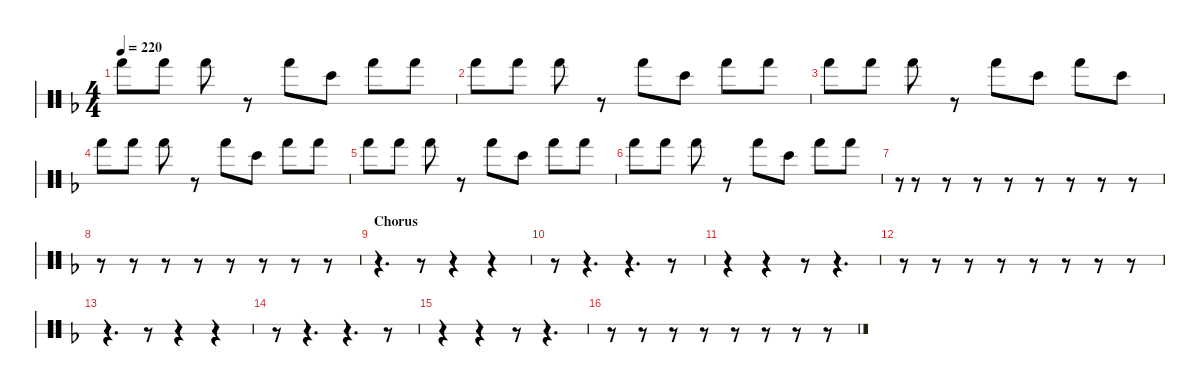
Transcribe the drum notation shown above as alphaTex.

\hideDynamics
\bracketExtendMode nobrackets
\singleTrackTrackNamePolicy hidden
\multiTrackTrackNamePolicy hidden
\firstSystemTrackNameMode fullname
\firstSystemTrackNameOrientation horizontal
\otherSystemsTrackNameOrientation horizontal
\track ("Bongos" "bngKit") {instrument percussion}
\staff {score 2}
\articulation defaults
\ts (4 4)
\tempo 220
\clef neutral
\ks dminor "Hand (hit)"{acc forcenatural}.8{dy p} "Hand (hit)"{acc forcenatural}.8 "Hand (hit)"{acc forcenatural}.8{dy mp}
r.8 "Hand (hit)"{acc forcenatural}.8 "Bongo High (hit)"{acc forcenatural}.8 "Hand (hit)"{acc forcenatural}.8 "Hand (hit)"{acc forcenatural}.8{dy p} |
"Hand (hit)"{acc forcenatural}.8 "Hand (hit)"{acc forcenatural}.8 "Hand (hit)"{acc forcenatural}.8{dy mp} r.8 "Hand (hit)"{acc forcenatural}.8 "Bongo High (hit)"{acc forcenatural}.8 "Hand (hit)"{acc forcenatural}.8 "Hand (hit)"{acc forcenatural}.8{dy p} |
"Hand (hit)"{acc forcenatural}.8 "Hand (hit)"{acc forcenatural}.8 "Hand (hit)"{acc forcenatural}.8{dy mp} r.8 "Hand (hit)"{acc forcenatural}.8 "Bongo High (hit)"{acc forcenatural}.8 "Hand (hit)"{acc forcenatural}.8 "Bongo High (hit)"{acc forcenatural}.8{dy p} |
"Hand (hit)"{acc forcenatural}.8 "Hand (hit)"{acc forcenatural}.8 "Hand (hit)"{acc forcenatural}.8{dy mp} r.8 "Hand (hit)"{acc forcenatural}.8 "Bongo High (hit)"{acc forcenatural}.8 "Hand (hit)"{acc forcenatural}.8 "Hand (hit)"{acc forcenatural}.8{dy p} |
"Hand (hit)"{acc forcenatural}.8 "Hand (hit)"{acc forcenatural}.8 "Hand (hit)"{acc forcenatural}.8{dy mp} r.8 "Hand (hit)"{acc forcenatural}.8 "Bongo High (hit)"{acc forcenatural}.8 "Hand (hit)"{acc forcenatural}.8 "Hand (hit)"{acc forcenatural}.8{dy p} |
"Hand (hit)"{acc forcenatural}.8 "Hand (hit)"{acc forcenatural}.8 "Hand (hit)"{acc forcenatural}.8{dy mp} r.8 "Hand (hit)"{acc forcenatural}.8 "Bongo High (hit)"{acc forcenatural}.8 "Hand (hit)"{acc forcenatural}.8 "Hand (hit)"{acc forcenatural}.8{dy p} |
r.8{gr} r.8 r.8 r.8 r.8 r.8 r.8 r.8 r.8 |
r.8 r.8 r.8 r.8 r.8 r.8 r.8 r.8 |
\section ("" "Chorus")
r.4{d} r.8 r.4 r.4 |
r.8 r.4{d} r.4{d} r.8 |
r.4 r.4 r.8 r.4{d} |
r.8 r.8 r.8 r.8 r.8 r.8 r.8 r.8 |
r.4{d} r.8 r.4 r.4 |
r.8 r.4{d} r.4{d} r.8 |
r.4 r.4 r.8 r.4{d} |
r.8 r.8 r.8 r.8 r.8 r.8 r.8 r.8
